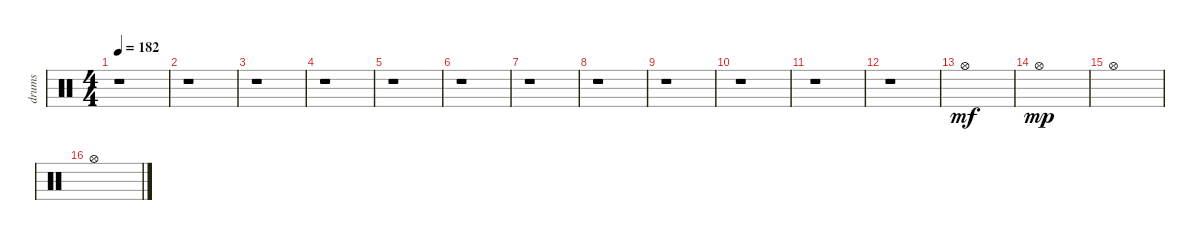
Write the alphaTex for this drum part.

\track ("drums" "drums") {instrument percussion}
\staff {score}
\articulation defaults
\ts (4 4)
\tempo 182
\clef neutral
\ks c
r.1{dy mf} |
r.1 |
r.1 |
r.1 |
r.1 |
r.1 |
r.1 |
r.1 |
r.1 |
r.1 |
r.1 |
r.1 |
"Hi-Hat (open)".1 |
"Hi-Hat (open)".1{dy mp} |
"Hi-Hat (open)".1 |
"Hi-Hat (open)".1
